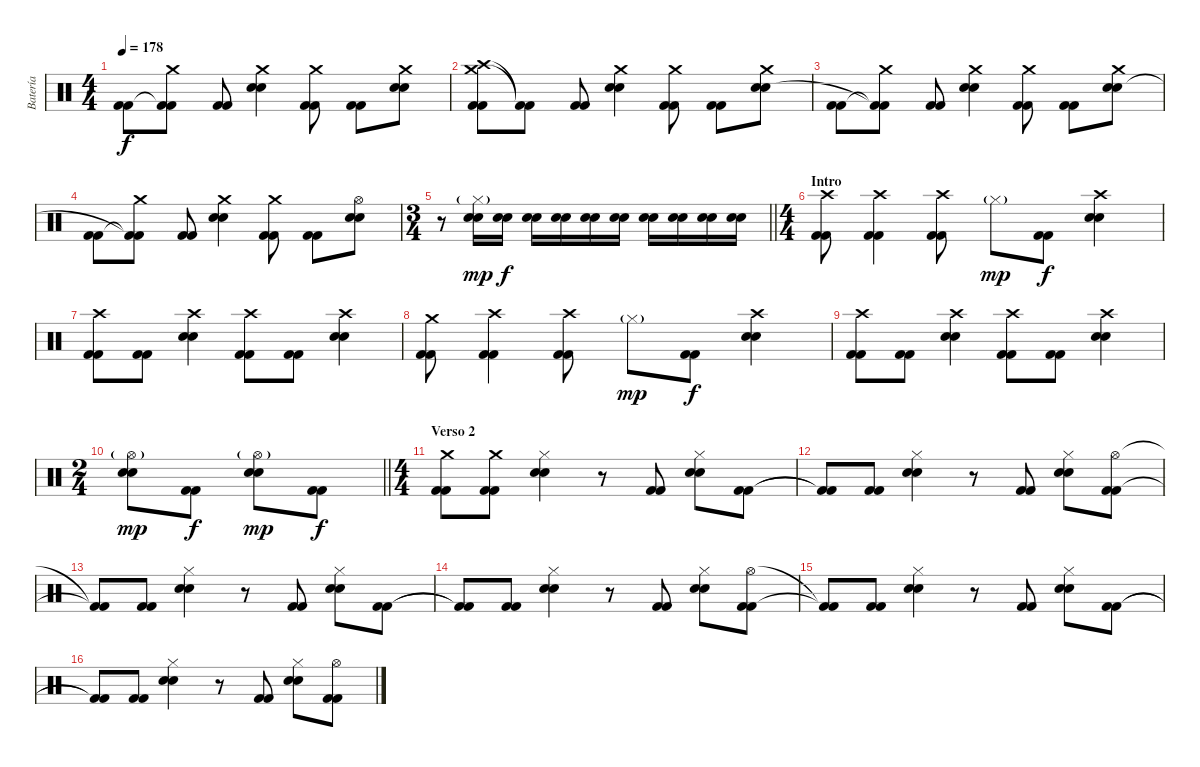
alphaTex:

\track ("Batería" "Batería") {instrument percussion}
\staff {score}
\articulation defaults
\ts (4 4)
\tempo 178
\clef neutral
\ks c
("Kick (hit) 2" "Kick (hit) 2").8{dy f} ("Crash medium (hit)" "Kick (hit) 2"{t} "Kick (hit) 2"{t}).8 ("Kick (hit) 2" "Kick (hit) 2").8 ("Crash medium (hit)" "Electric Snare (hit)" "Electric Snare (hit)").4 ("Crash medium (hit)" "Kick (hit) 2" "Kick (hit) 2").8 ("Kick (hit) 2" "Kick (hit) 2").8 ("Crash medium (hit)" "Electric Snare (hit)" "Electric Snare (hit)").8 |
("Crash medium (hit)" "Crash high (hit)" "Kick (hit) 2" "Kick (hit) 2").8 ("Kick (hit) 2"{t} "Kick (hit) 2"{t}).8 ("Kick (hit) 2" "Kick (hit) 2").8 ("Crash medium (hit)" "Electric Snare (hit)" "Electric Snare (hit)").4 ("Crash medium (hit)" "Kick (hit) 2" "Kick (hit) 2").8 ("Kick (hit) 2" "Kick (hit) 2").8 ("Crash medium (hit)" "Electric Snare (hit)" "Electric Snare (hit)").8 |
("Kick (hit) 2" "Kick (hit) 2").8 ("Crash medium (hit)" "Kick (hit) 2"{t} "Kick (hit) 2"{t}).8 ("Kick (hit) 2" "Kick (hit) 2").8 ("Crash medium (hit)" "Electric Snare (hit)" "Electric Snare (hit)").4 ("Crash medium (hit)" "Kick (hit) 2" "Kick (hit) 2").8 ("Kick (hit) 2" "Kick (hit) 2").8 ("Crash medium (hit)" "Electric Snare (hit)" "Electric Snare (hit)").8 |
("Kick (hit) 2" "Kick (hit) 2").8 ("Crash medium (hit)" "Kick (hit) 2"{t} "Kick (hit) 2"{t}).8 ("Kick (hit) 2" "Kick (hit) 2").8 ("Crash medium (hit)" "Electric Snare (hit)" "Electric Snare (hit)").4 ("Crash medium (hit)" "Kick (hit) 2" "Kick (hit) 2").8 ("Kick (hit) 2" "Kick (hit) 2").8 ("Hi-Hat (open)" "Electric Snare (hit)" "Electric Snare (hit)").8 |
\ts (3 4)
\barLineRight lightlight
r.8 ("Hi-Hat (closed)"{g} "Electric Snare (hit)" "Electric Snare (hit)").16{dy mp} ("Electric Snare (hit)" "Electric Snare (hit)").16{dy f} ("Electric Snare (hit)" "Electric Snare (hit)").16 ("Electric Snare (hit)" "Electric Snare (hit)").16 ("Electric Snare (hit)" "Electric Snare (hit)").16 ("Electric Snare (hit)" "Electric Snare (hit)").16 ("Electric Snare (hit)" "Electric Snare (hit)").16 ("Electric Snare (hit)" "Electric Snare (hit)").16 ("Electric Snare (hit)" "Electric Snare (hit)").16 ("Electric Snare (hit)" "Electric Snare (hit)").16 |
\ts (4 4)
\section ("" "Intro")
("Crash high (hit)" "Kick (hit) 2" "Kick (hit) 2").8 ("Crash high (hit)" "Kick (hit) 2" "Kick (hit) 2").4 ("Crash high (hit)" "Kick (hit) 2" "Kick (hit) 2").8 "Hi-Hat (closed)"{g}.8{dy mp} ("Kick (hit) 2" "Kick (hit) 2").8{dy f} ("Crash high (hit)" "Electric Snare (hit)" "Electric Snare (hit)").4 |
("Crash high (hit)" "Kick (hit) 2" "Kick (hit) 2").8 ("Kick (hit) 2" "Kick (hit) 2").8 ("Crash high (hit)" "Electric Snare (hit)" "Electric Snare (hit)").4 ("Crash high (hit)" "Kick (hit) 2" "Kick (hit) 2").8 ("Kick (hit) 2" "Kick (hit) 2").8 ("Crash high (hit)" "Electric Snare (hit)" "Electric Snare (hit)").4 |
("Crash medium (hit)" "Kick (hit) 2" "Kick (hit) 2").8 ("Crash high (hit)" "Kick (hit) 2" "Kick (hit) 2").4 ("Crash high (hit)" "Kick (hit) 2" "Kick (hit) 2").8 "Hi-Hat (closed)"{g}.8{dy mp} ("Kick (hit) 2" "Kick (hit) 2").8{dy f} ("Crash high (hit)" "Electric Snare (hit)" "Electric Snare (hit)").4 |
("Crash high (hit)" "Kick (hit) 2" "Kick (hit) 2").8 ("Kick (hit) 2" "Kick (hit) 2").8 ("Crash high (hit)" "Electric Snare (hit)" "Electric Snare (hit)").4 ("Crash high (hit)" "Kick (hit) 2" "Kick (hit) 2").8 ("Kick (hit) 2" "Kick (hit) 2").8 ("Crash high (hit)" "Electric Snare (hit)" "Electric Snare (hit)").4 |
\ts (2 4)
\barLineRight lightlight
("Hi-Hat (open)"{g} "Electric Snare (hit)" "Electric Snare (hit)").8{dy mp} ("Kick (hit) 2" "Kick (hit) 2").8{dy f} ("Hi-Hat (open)"{g} "Electric Snare (hit)" "Electric Snare (hit)").8{dy mp} ("Kick (hit) 2" "Kick (hit) 2").8{dy f} |
\ts (4 4)
\section ("" "Verso 2")
("Crash medium (hit)" "Kick (hit) 2" "Kick (hit) 2").8{volume 13} ("Crash medium (hit)" "Kick (hit) 2" "Kick (hit) 2").8 ("Hi-Hat (closed)" "Electric Snare (hit)" "Electric Snare (hit)").4 r.8 ("Kick (hit) 2" "Kick (hit) 2").8 ("Hi-Hat (closed)" "Electric Snare (hit)" "Electric Snare (hit)").8 ("Kick (hit) 2" "Kick (hit) 2").8 |
("Kick (hit) 2"{t} "Kick (hit) 2"{t}).8 ("Kick (hit) 2" "Kick (hit) 2").8 ("Hi-Hat (closed)" "Electric Snare (hit)" "Electric Snare (hit)").4 r.8 ("Kick (hit) 2" "Kick (hit) 2").8 ("Hi-Hat (closed)" "Electric Snare (hit)" "Electric Snare (hit)").8 ("Hi-Hat (open)" "Kick (hit) 2" "Kick (hit) 2").8 |
("Kick (hit) 2"{t} "Kick (hit) 2"{t}).8 ("Kick (hit) 2" "Kick (hit) 2").8 ("Hi-Hat (closed)" "Electric Snare (hit)" "Electric Snare (hit)").4 r.8 ("Kick (hit) 2" "Kick (hit) 2").8 ("Hi-Hat (closed)" "Electric Snare (hit)" "Electric Snare (hit)").8 ("Kick (hit) 2" "Kick (hit) 2").8 |
("Kick (hit) 2"{t} "Kick (hit) 2"{t}).8 ("Kick (hit) 2" "Kick (hit) 2").8 ("Hi-Hat (closed)" "Electric Snare (hit)" "Electric Snare (hit)").4 r.8 ("Kick (hit) 2" "Kick (hit) 2").8 ("Hi-Hat (closed)" "Electric Snare (hit)" "Electric Snare (hit)").8 ("Hi-Hat (open)" "Kick (hit) 2" "Kick (hit) 2").8 |
("Kick (hit) 2"{t} "Kick (hit) 2"{t}).8 ("Kick (hit) 2" "Kick (hit) 2").8 ("Hi-Hat (closed)" "Electric Snare (hit)" "Electric Snare (hit)").4 r.8 ("Kick (hit) 2" "Kick (hit) 2").8 ("Hi-Hat (closed)" "Electric Snare (hit)" "Electric Snare (hit)").8 ("Kick (hit) 2" "Kick (hit) 2").8 |
("Kick (hit) 2"{t} "Kick (hit) 2"{t}).8 ("Kick (hit) 2" "Kick (hit) 2").8 ("Hi-Hat (closed)" "Electric Snare (hit)" "Electric Snare (hit)").4 r.8 ("Kick (hit) 2" "Kick (hit) 2").8 ("Hi-Hat (closed)" "Electric Snare (hit)" "Electric Snare (hit)").8 ("Hi-Hat (open)" "Kick (hit) 2" "Kick (hit) 2").8
